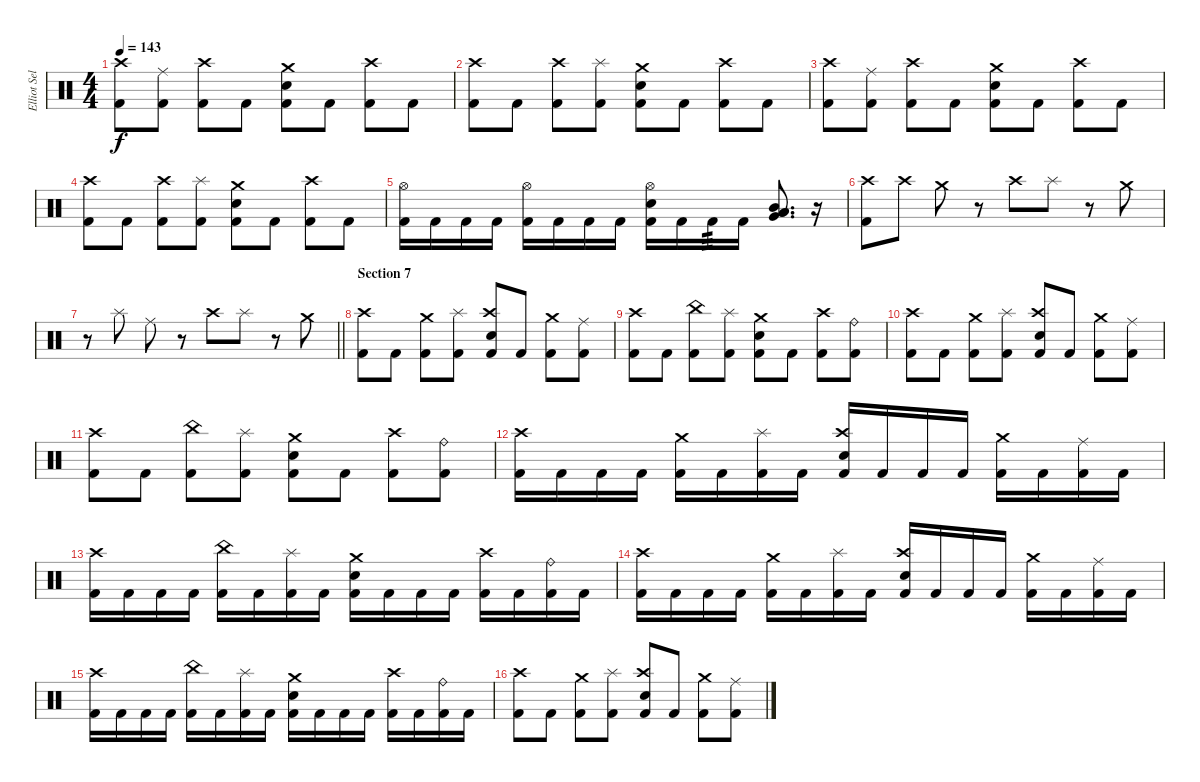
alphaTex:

\track ("Elliot Sellers" "Elliot Sel") {instrument percussion}
\staff {score}
\articulation defaults
\ts (4 4)
\tempo 143
\clef neutral
\ks c
("Kick (hit) 2" "Crash high (hit)").8{dy f} ("Kick (hit) 2" "Ride (middle)").8 ("Kick (hit) 2" "Crash high (hit)").8 "Kick (hit) 2".8 ("Kick (hit) 2" "Electric Snare (hit)" "Crash medium (hit)").8 "Kick (hit) 2".8 ("Kick (hit) 2" "Crash high (hit)").8 "Kick (hit) 2".8 |
("Kick (hit) 2" "Crash high (hit)").8 "Kick (hit) 2".8 ("Kick (hit) 2" "Crash high (hit)").8 ("Kick (hit) 2" "Splash (hit)").8 ("Kick (hit) 2" "Electric Snare (hit)" "Crash medium (hit)").8 "Kick (hit) 2".8 ("Kick (hit) 2" "Crash high (hit)").8 "Kick (hit) 2".8 |
("Kick (hit) 2" "Crash high (hit)").8 ("Kick (hit) 2" "Ride (middle)").8 ("Kick (hit) 2" "Crash high (hit)").8 "Kick (hit) 2".8 ("Kick (hit) 2" "Electric Snare (hit)" "Crash medium (hit)").8 "Kick (hit) 2".8 ("Kick (hit) 2" "Crash high (hit)").8 "Kick (hit) 2".8 |
("Kick (hit) 2" "Crash high (hit)").8 "Kick (hit) 2".8 ("Kick (hit) 2" "Crash high (hit)").8 ("Kick (hit) 2" "Splash (hit)").8 ("Kick (hit) 2" "Electric Snare (hit)" "Crash medium (hit)").8 "Kick (hit) 2".8 ("Kick (hit) 2" "Crash high (hit)").8 "Kick (hit) 2".8 |
("Kick (hit) 2" "Hi-Hat (open)").16 "Kick (hit) 2".16 "Kick (hit) 2".16 "Kick (hit) 2".16 ("Kick (hit) 2" "Hi-Hat (open)").16 "Kick (hit) 2".16 "Kick (hit) 2".16 "Kick (hit) 2".16 ("Kick (hit) 2" "Hi-Hat (open)" "Electric Snare (hit)").16 "Kick (hit) 2".16 "Kick (hit) 2".16{tp 3} "Kick (hit) 2".16 ("Low Tom (hit)" "Low Tom (hit)" "Very Low Tom (hit)" "Mid Tom (hit)").8{d} r.16 |
("Crash high (hit)" "Kick (hit) 2").8 "Crash high (hit)".8 "Crash medium (hit)".8 r.8 "Crash high (hit)".8 "Splash (hit)".8 r.8 "Crash medium (hit)".8 |
\barLineRight lightlight
r.8 "Splash (hit)".8 "Ride (middle)".8 r.8 "Crash high (hit)".8 "Splash (hit)".8 r.8 "Crash medium (hit)".8 |
\section ("" "Section 7")
("Kick (hit) 2" "Crash high (hit)").8 "Kick (hit) 2".8 ("Kick (hit) 2" "Crash medium (hit)").8 ("Kick (hit) 2" "Splash (hit)").8 ("Kick (hit) 2" "Crash high (hit)" "Electric Snare (hit)").8 "Kick (hit) 2".8 ("Kick (hit) 2" "Crash medium (hit)").8 ("Kick (hit) 2" "Ride (middle)").8 |
("Kick (hit) 2" "Crash high (hit)").8 "Kick (hit) 2".8 ("Kick (hit) 2" "China (hit)").8 ("Kick (hit) 2" "Splash (hit)").8 ("Kick (hit) 2" "Crash medium (hit)" "Electric Snare (hit)").8 "Kick (hit) 2".8 ("Kick (hit) 2" "Crash high (hit)").8 ("Kick (hit) 2" "Ride (bell)").8 |
("Kick (hit) 2" "Crash high (hit)").8 "Kick (hit) 2".8 ("Kick (hit) 2" "Crash medium (hit)").8 ("Kick (hit) 2" "Splash (hit)").8 ("Kick (hit) 2" "Crash high (hit)" "Electric Snare (hit)").8 "Kick (hit) 2".8 ("Kick (hit) 2" "Crash medium (hit)").8 ("Kick (hit) 2" "Ride (middle)").8 |
("Kick (hit) 2" "Crash high (hit)").8 "Kick (hit) 2".8 ("Kick (hit) 2" "China (hit)").8 ("Kick (hit) 2" "Splash (hit)").8 ("Kick (hit) 2" "Crash medium (hit)" "Electric Snare (hit)").8 "Kick (hit) 2".8 ("Kick (hit) 2" "Crash high (hit)").8 ("Kick (hit) 2" "Ride (bell)").8 |
("Kick (hit) 2" "Crash high (hit)").16 "Kick (hit) 2".16 "Kick (hit) 2".16 "Kick (hit) 2".16 ("Kick (hit) 2" "Crash medium (hit)").16 "Kick (hit) 2".16 ("Kick (hit) 2" "Splash (hit)").16 "Kick (hit) 2".16 ("Kick (hit) 2" "Crash high (hit)" "Electric Snare (hit)").16 "Kick (hit) 2".16 "Kick (hit) 2".16 "Kick (hit) 2".16 ("Kick (hit) 2" "Crash medium (hit)").16 "Kick (hit) 2".16 ("Kick (hit) 2" "Ride (middle)").16 "Kick (hit) 2".16 |
("Kick (hit) 2" "Crash high (hit)").16 "Kick (hit) 2".16 "Kick (hit) 2".16 "Kick (hit) 2".16 ("Kick (hit) 2" "China (hit)").16 "Kick (hit) 2".16 ("Kick (hit) 2" "Splash (hit)").16 "Kick (hit) 2".16 ("Kick (hit) 2" "Crash medium (hit)" "Electric Snare (hit)").16 "Kick (hit) 2".16 "Kick (hit) 2".16 "Kick (hit) 2".16 ("Kick (hit) 2" "Crash high (hit)").16 "Kick (hit) 2".16 ("Kick (hit) 2" "Ride (bell)").16 "Kick (hit) 2".16 |
("Kick (hit) 2" "Crash high (hit)").16 "Kick (hit) 2".16 "Kick (hit) 2".16 "Kick (hit) 2".16 ("Kick (hit) 2" "Crash medium (hit)").16 "Kick (hit) 2".16 ("Kick (hit) 2" "Splash (hit)").16 "Kick (hit) 2".16 ("Kick (hit) 2" "Crash high (hit)" "Electric Snare (hit)").16 "Kick (hit) 2".16 "Kick (hit) 2".16 "Kick (hit) 2".16 ("Kick (hit) 2" "Crash medium (hit)").16 "Kick (hit) 2".16 ("Kick (hit) 2" "Ride (middle)").16 "Kick (hit) 2".16 |
("Kick (hit) 2" "Crash high (hit)").16 "Kick (hit) 2".16 "Kick (hit) 2".16 "Kick (hit) 2".16 ("Kick (hit) 2" "China (hit)").16 "Kick (hit) 2".16 ("Kick (hit) 2" "Splash (hit)").16 "Kick (hit) 2".16 ("Kick (hit) 2" "Crash medium (hit)" "Electric Snare (hit)").16 "Kick (hit) 2".16 "Kick (hit) 2".16 "Kick (hit) 2".16 ("Kick (hit) 2" "Crash high (hit)").16 "Kick (hit) 2".16 ("Kick (hit) 2" "Ride (bell)").16 "Kick (hit) 2".16 |
("Kick (hit) 2" "Crash high (hit)").8 "Kick (hit) 2".8 ("Kick (hit) 2" "Crash medium (hit)").8 ("Kick (hit) 2" "Splash (hit)").8 ("Kick (hit) 2" "Crash high (hit)" "Electric Snare (hit)").8 "Kick (hit) 2".8 ("Kick (hit) 2" "Crash medium (hit)").8 ("Kick (hit) 2" "Ride (middle)").8
